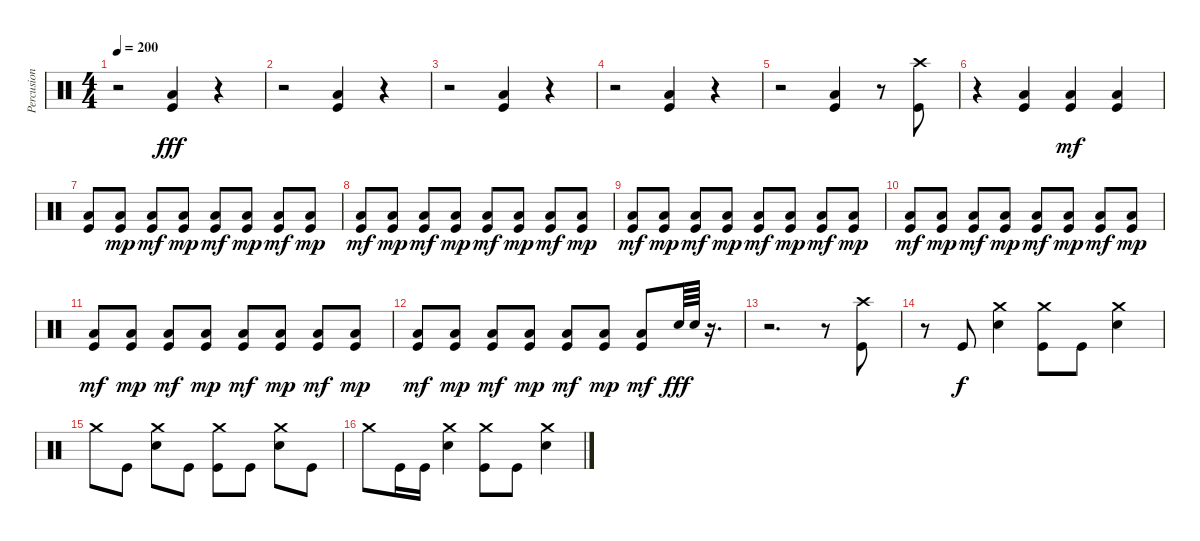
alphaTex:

\track ("Percusion" "Percusion") {instrument percussion}
\staff {score}
\articulation defaults
\ts (4 4)
\tempo 200
\clef neutral
\ks c
r.2{dy fff} ("Low Floor Tom (hit)" "Kick (hit)").4 r.4 |
r.2 ("Low Floor Tom (hit)" "Kick (hit)").4 r.4 |
r.2 ("Low Floor Tom (hit)" "Kick (hit)").4 r.4 |
r.2 ("Low Floor Tom (hit)" "Kick (hit)").4 r.4 |
r.2 ("Low Floor Tom (hit)" "Kick (hit)").4 r.8 ("Crash high (hit)" "Kick (hit)").8 |
r.4 ("Low Floor Tom (hit)" "Kick (hit)").4 ("Kick (hit)" "Low Floor Tom (hit)").4{dy mf} ("Kick (hit)" "Low Floor Tom (hit)").4 |
("Kick (hit)" "Low Floor Tom (hit)").8 ("Kick (hit)" "Low Floor Tom (hit)").8{dy mp} ("Kick (hit)" "Low Floor Tom (hit)").8{dy mf} ("Kick (hit)" "Low Floor Tom (hit)").8{dy mp} ("Kick (hit)" "Low Floor Tom (hit)").8{dy mf} ("Kick (hit)" "Low Floor Tom (hit)").8{dy mp} ("Kick (hit)" "Low Floor Tom (hit)").8{dy mf} ("Kick (hit)" "Low Floor Tom (hit)").8{dy mp} |
("Kick (hit)" "Low Floor Tom (hit)").8{dy mf} ("Kick (hit)" "Low Floor Tom (hit)").8{dy mp} ("Kick (hit)" "Low Floor Tom (hit)").8{dy mf} ("Kick (hit)" "Low Floor Tom (hit)").8{dy mp} ("Kick (hit)" "Low Floor Tom (hit)").8{dy mf} ("Kick (hit)" "Low Floor Tom (hit)").8{dy mp} ("Kick (hit)" "Low Floor Tom (hit)").8{dy mf} ("Kick (hit)" "Low Floor Tom (hit)").8{dy mp} |
("Kick (hit)" "Low Floor Tom (hit)").8{dy mf} ("Kick (hit)" "Low Floor Tom (hit)").8{dy mp} ("Kick (hit)" "Low Floor Tom (hit)").8{dy mf} ("Kick (hit)" "Low Floor Tom (hit)").8{dy mp} ("Kick (hit)" "Low Floor Tom (hit)").8{dy mf} ("Kick (hit)" "Low Floor Tom (hit)").8{dy mp} ("Kick (hit)" "Low Floor Tom (hit)").8{dy mf} ("Kick (hit)" "Low Floor Tom (hit)").8{dy mp} |
("Kick (hit)" "Low Floor Tom (hit)").8{dy mf} ("Kick (hit)" "Low Floor Tom (hit)").8{dy mp} ("Kick (hit)" "Low Floor Tom (hit)").8{dy mf} ("Kick (hit)" "Low Floor Tom (hit)").8{dy mp} ("Kick (hit)" "Low Floor Tom (hit)").8{dy mf} ("Kick (hit)" "Low Floor Tom (hit)").8{dy mp} ("Kick (hit)" "Low Floor Tom (hit)").8{dy mf} ("Kick (hit)" "Low Floor Tom (hit)").8{dy mp} |
("Kick (hit)" "Low Floor Tom (hit)").8{dy mf} ("Kick (hit)" "Low Floor Tom (hit)").8{dy mp} ("Kick (hit)" "Low Floor Tom (hit)").8{dy mf} ("Kick (hit)" "Low Floor Tom (hit)").8{dy mp} ("Kick (hit)" "Low Floor Tom (hit)").8{dy mf} ("Kick (hit)" "Low Floor Tom (hit)").8{dy mp} ("Kick (hit)" "Low Floor Tom (hit)").8{dy mf} ("Kick (hit)" "Low Floor Tom (hit)").8{dy mp} |
("Kick (hit)" "Low Floor Tom (hit)").8{dy mf} ("Kick (hit)" "Low Floor Tom (hit)").8{dy mp} ("Kick (hit)" "Low Floor Tom (hit)").8{dy mf} ("Kick (hit)" "Low Floor Tom (hit)").8{dy mp} ("Kick (hit)" "Low Floor Tom (hit)").8{dy mf} ("Kick (hit)" "Low Floor Tom (hit)").8{dy mp} ("Kick (hit)" "Low Floor Tom (hit)").8{dy mf} "Snare (hit) 2".64{dy fff} "Snare (hit) 2".64 r.16{d} |
r.2{d} r.8 ("Crash high (hit)" "Kick (hit)").8 |
r.8 "Kick (hit)".8{dy f} ("Snare (hit) 2" "Crash medium (hit)").4 ("Crash medium (hit)" "Kick (hit)").8 "Kick (hit)".8 ("Snare (hit) 2" "Crash medium (hit)").4 |
"Crash medium (hit)".8 "Kick (hit)".8 ("Snare (hit) 2" "Crash medium (hit)").8 "Kick (hit)".8 ("Kick (hit)" "Crash medium (hit)").8 "Kick (hit)".8 ("Crash medium (hit)" "Snare (hit) 2").8 "Kick (hit)".8 |
"Crash medium (hit)".8 "Kick (hit)".16 "Kick (hit)".16 ("Snare (hit) 2" "Crash medium (hit)").4 ("Crash medium (hit)" "Kick (hit)").8 "Kick (hit)".8 ("Snare (hit) 2" "Crash medium (hit)").4
